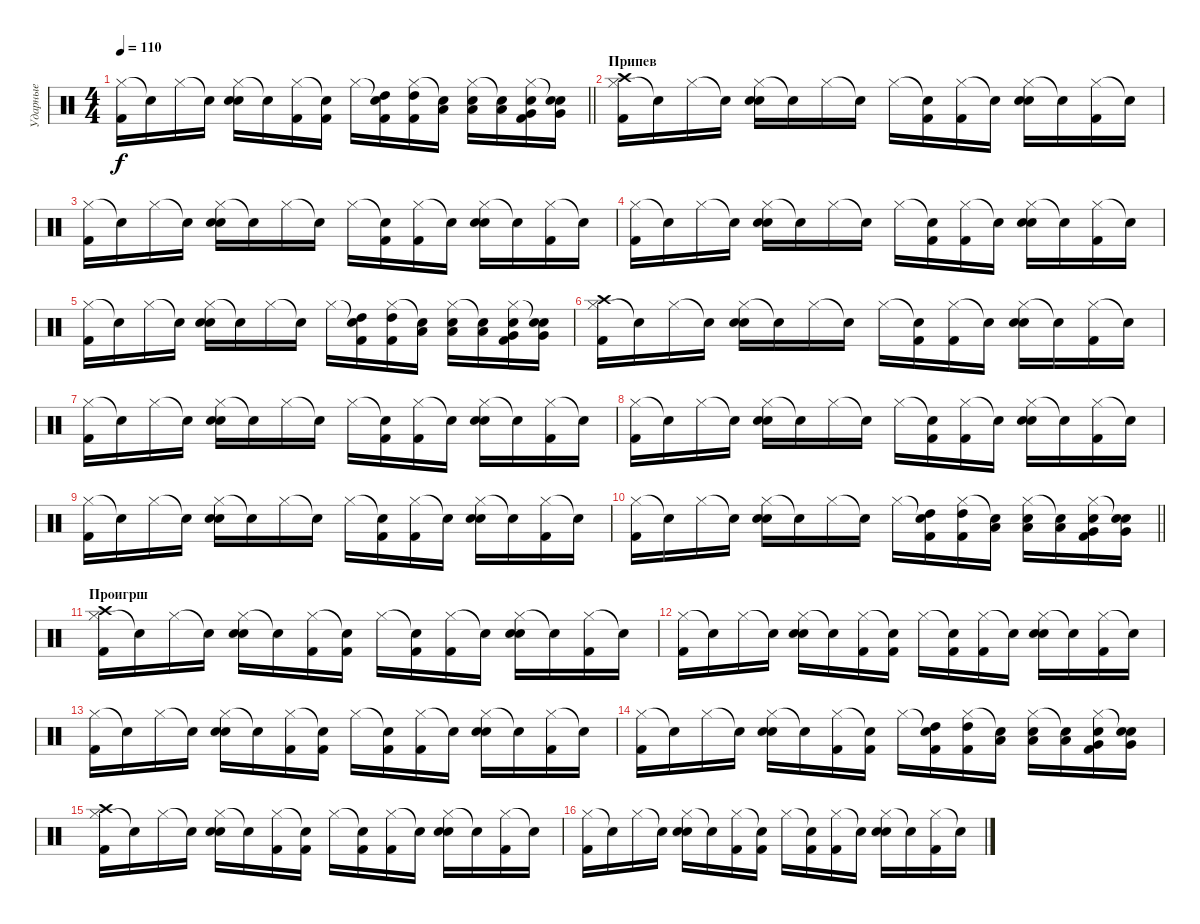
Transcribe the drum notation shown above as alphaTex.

\track ("Ударные" "Ударные") {instrument percussion}
\staff {score}
\articulation defaults
\ts (4 4)
\tempo 110
\clef neutral
\barLineRight lightlight
\ks c
("Hi-Hat (closed)" "Kick (hit) 2").16{dy f} "Snare (hit)"{t}.16 "Hi-Hat (closed)".16 "Snare (hit)"{t}.16 ("Hi-Hat (closed)" "Snare (hit) 2" "Electric Snare (hit)").16 "Snare (hit)"{t}.16 ("Hi-Hat (closed)" "Kick (hit) 2").16 ("Snare (hit)"{t} "Kick (hit) 2").16 "Hi-Hat (closed)".16 ("Snare (hit)"{t} "High Tom (hit)" "Kick (hit) 2").16 ("Hi-Hat (closed)" "High Tom (hit)" "Kick (hit) 2").16 ("Snare (hit)"{t} "Low Tom (hit)").16 ("Hi-Hat (closed)" "Low Tom (hit)" "Snare (hit) 2").16 ("Snare (hit)"{t} "Low Tom (hit)").16 ("Hi-Hat (closed)" "Very Low Tom (hit)" "Electric Snare (hit)" "Kick (hit) 2").16 ("Snare (hit)"{t} "Very Low Tom (hit)" "Electric Snare (hit)").16 |
\section ("" "Припев")
("Hi-Hat (closed)" "Crash high (hit)" "Kick (hit) 2").16 "Snare (hit)"{t}.16 "Hi-Hat (closed)".16 "Snare (hit)"{t}.16 ("Hi-Hat (closed)" "Snare (hit) 2" "Electric Snare (hit)").16 "Snare (hit)"{t}.16 "Hi-Hat (closed)".16 "Snare (hit)"{t}.16 "Hi-Hat (closed)".16 ("Snare (hit)"{t} "Kick (hit) 2").16 ("Hi-Hat (closed)" "Kick (hit) 2").16 "Snare (hit)"{t}.16 ("Hi-Hat (closed)" "Electric Snare (hit)" "Snare (hit) 2").16 "Snare (hit)"{t}.16 ("Hi-Hat (closed)" "Kick (hit) 2").16 "Snare (hit)"{t}.16 |
("Hi-Hat (closed)" "Kick (hit) 2").16 "Snare (hit)"{t}.16 "Hi-Hat (closed)".16 "Snare (hit)"{t}.16 ("Hi-Hat (closed)" "Snare (hit) 2" "Electric Snare (hit)").16 "Snare (hit)"{t}.16 "Hi-Hat (closed)".16 "Snare (hit)"{t}.16 "Hi-Hat (closed)".16 ("Snare (hit)"{t} "Kick (hit) 2").16 ("Hi-Hat (closed)" "Kick (hit) 2").16 "Snare (hit)"{t}.16 ("Hi-Hat (closed)" "Electric Snare (hit)" "Snare (hit) 2").16 "Snare (hit)"{t}.16 ("Hi-Hat (closed)" "Kick (hit) 2").16 "Snare (hit)"{t}.16 |
("Hi-Hat (closed)" "Kick (hit) 2").16 "Snare (hit)"{t}.16 "Hi-Hat (closed)".16 "Snare (hit)"{t}.16 ("Hi-Hat (closed)" "Snare (hit) 2" "Electric Snare (hit)").16 "Snare (hit)"{t}.16 "Hi-Hat (closed)".16 "Snare (hit)"{t}.16 "Hi-Hat (closed)".16 ("Snare (hit)"{t} "Kick (hit) 2").16 ("Hi-Hat (closed)" "Kick (hit) 2").16 "Snare (hit)"{t}.16 ("Hi-Hat (closed)" "Electric Snare (hit)" "Snare (hit) 2").16 "Snare (hit)"{t}.16 ("Hi-Hat (closed)" "Kick (hit) 2").16 "Snare (hit)"{t}.16 |
("Hi-Hat (closed)" "Kick (hit) 2").16 "Snare (hit)"{t}.16 "Hi-Hat (closed)".16 "Snare (hit)"{t}.16 ("Hi-Hat (closed)" "Snare (hit) 2" "Electric Snare (hit)").16 "Snare (hit)"{t}.16 "Hi-Hat (closed)".16 "Snare (hit)"{t}.16 "Hi-Hat (closed)".16 ("Snare (hit)"{t} "High Tom (hit)" "Kick (hit) 2").16 ("Hi-Hat (closed)" "High Tom (hit)" "Kick (hit) 2").16 ("Snare (hit)"{t} "Low Tom (hit)").16 ("Hi-Hat (closed)" "Low Tom (hit)" "Snare (hit) 2").16 ("Snare (hit)"{t} "Low Tom (hit)").16 ("Hi-Hat (closed)" "Very Low Tom (hit)" "Electric Snare (hit)" "Kick (hit) 2").16 ("Snare (hit)"{t} "Very Low Tom (hit)" "Electric Snare (hit)").16 |
("Hi-Hat (closed)" "Crash high (hit)" "Kick (hit) 2").16 "Snare (hit)"{t}.16 "Hi-Hat (closed)".16 "Snare (hit)"{t}.16 ("Hi-Hat (closed)" "Snare (hit) 2" "Electric Snare (hit)").16 "Snare (hit)"{t}.16 "Hi-Hat (closed)".16 "Snare (hit)"{t}.16 "Hi-Hat (closed)".16 ("Snare (hit)"{t} "Kick (hit) 2").16 ("Hi-Hat (closed)" "Kick (hit) 2").16 "Snare (hit)"{t}.16 ("Hi-Hat (closed)" "Electric Snare (hit)" "Snare (hit) 2").16 "Snare (hit)"{t}.16 ("Hi-Hat (closed)" "Kick (hit) 2").16 "Snare (hit)"{t}.16 |
("Hi-Hat (closed)" "Kick (hit) 2").16 "Snare (hit)"{t}.16 "Hi-Hat (closed)".16 "Snare (hit)"{t}.16 ("Hi-Hat (closed)" "Snare (hit) 2" "Electric Snare (hit)").16 "Snare (hit)"{t}.16 "Hi-Hat (closed)".16 "Snare (hit)"{t}.16 "Hi-Hat (closed)".16 ("Snare (hit)"{t} "Kick (hit) 2").16 ("Hi-Hat (closed)" "Kick (hit) 2").16 "Snare (hit)"{t}.16 ("Hi-Hat (closed)" "Electric Snare (hit)" "Snare (hit) 2").16 "Snare (hit)"{t}.16 ("Hi-Hat (closed)" "Kick (hit) 2").16 "Snare (hit)"{t}.16 |
("Hi-Hat (closed)" "Kick (hit) 2").16 "Snare (hit)"{t}.16 "Hi-Hat (closed)".16 "Snare (hit)"{t}.16 ("Hi-Hat (closed)" "Snare (hit) 2" "Electric Snare (hit)").16 "Snare (hit)"{t}.16 "Hi-Hat (closed)".16 "Snare (hit)"{t}.16 "Hi-Hat (closed)".16 ("Snare (hit)"{t} "Kick (hit) 2").16 ("Hi-Hat (closed)" "Kick (hit) 2").16 "Snare (hit)"{t}.16 ("Hi-Hat (closed)" "Electric Snare (hit)" "Snare (hit) 2").16 "Snare (hit)"{t}.16 ("Hi-Hat (closed)" "Kick (hit) 2").16 "Snare (hit)"{t}.16 |
("Hi-Hat (closed)" "Kick (hit) 2").16 "Snare (hit)"{t}.16 "Hi-Hat (closed)".16 "Snare (hit)"{t}.16 ("Hi-Hat (closed)" "Snare (hit) 2" "Electric Snare (hit)").16 "Snare (hit)"{t}.16 "Hi-Hat (closed)".16 "Snare (hit)"{t}.16 "Hi-Hat (closed)".16 ("Snare (hit)"{t} "Kick (hit) 2").16 ("Hi-Hat (closed)" "Kick (hit) 2").16 "Snare (hit)"{t}.16 ("Hi-Hat (closed)" "Electric Snare (hit)" "Snare (hit) 2").16 "Snare (hit)"{t}.16 ("Hi-Hat (closed)" "Kick (hit) 2").16 "Snare (hit)"{t}.16 |
\barLineRight lightlight
("Hi-Hat (closed)" "Kick (hit) 2").16 "Snare (hit)"{t}.16 "Hi-Hat (closed)".16 "Snare (hit)"{t}.16 ("Hi-Hat (closed)" "Snare (hit) 2" "Electric Snare (hit)").16 "Snare (hit)"{t}.16 "Hi-Hat (closed)".16 "Snare (hit)"{t}.16 "Hi-Hat (closed)".16 ("Snare (hit)"{t} "High Tom (hit)" "Kick (hit) 2").16 ("Hi-Hat (closed)" "High Tom (hit)" "Kick (hit) 2").16 ("Snare (hit)"{t} "Low Tom (hit)").16 ("Hi-Hat (closed)" "Low Tom (hit)" "Snare (hit) 2").16 ("Snare (hit)"{t} "Low Tom (hit)").16 ("Hi-Hat (closed)" "Very Low Tom (hit)" "Electric Snare (hit)" "Kick (hit) 2").16 ("Snare (hit)"{t} "Very Low Tom (hit)" "Electric Snare (hit)").16 |
\section ("" "Проигрш")
("Hi-Hat (closed)" "Crash high (hit)" "Kick (hit) 2").16 "Snare (hit)"{t}.16 "Hi-Hat (closed)".16 "Snare (hit)"{t}.16 ("Hi-Hat (closed)" "Snare (hit) 2" "Electric Snare (hit)").16 "Snare (hit)"{t}.16 ("Hi-Hat (closed)" "Kick (hit) 2").16 ("Snare (hit)"{t} "Kick (hit) 2").16 "Hi-Hat (closed)".16 ("Snare (hit)"{t} "Kick (hit) 2").16 ("Hi-Hat (closed)" "Kick (hit) 2").16 "Snare (hit)"{t}.16 ("Hi-Hat (closed)" "Electric Snare (hit)" "Snare (hit) 2").16 "Snare (hit)"{t}.16 ("Hi-Hat (closed)" "Kick (hit) 2").16 "Snare (hit)"{t}.16 |
("Hi-Hat (closed)" "Kick (hit) 2").16 "Snare (hit)"{t}.16 "Hi-Hat (closed)".16 "Snare (hit)"{t}.16 ("Hi-Hat (closed)" "Snare (hit) 2" "Electric Snare (hit)").16 "Snare (hit)"{t}.16 ("Hi-Hat (closed)" "Kick (hit) 2").16 ("Snare (hit)"{t} "Kick (hit) 2").16 "Hi-Hat (closed)".16 ("Snare (hit)"{t} "Kick (hit) 2").16 ("Hi-Hat (closed)" "Kick (hit) 2").16 "Snare (hit)"{t}.16 ("Hi-Hat (closed)" "Electric Snare (hit)" "Snare (hit) 2").16 "Snare (hit)"{t}.16 ("Hi-Hat (closed)" "Kick (hit) 2").16 "Snare (hit)"{t}.16 |
("Hi-Hat (closed)" "Kick (hit) 2").16 "Snare (hit)"{t}.16 "Hi-Hat (closed)".16 "Snare (hit)"{t}.16 ("Hi-Hat (closed)" "Snare (hit) 2" "Electric Snare (hit)").16 "Snare (hit)"{t}.16 ("Hi-Hat (closed)" "Kick (hit) 2").16 ("Snare (hit)"{t} "Kick (hit) 2").16 "Hi-Hat (closed)".16 ("Snare (hit)"{t} "Kick (hit) 2").16 ("Hi-Hat (closed)" "Kick (hit) 2").16 "Snare (hit)"{t}.16 ("Hi-Hat (closed)" "Electric Snare (hit)" "Snare (hit) 2").16 "Snare (hit)"{t}.16 ("Hi-Hat (closed)" "Kick (hit) 2").16 "Snare (hit)"{t}.16 |
("Hi-Hat (closed)" "Kick (hit) 2").16 "Snare (hit)"{t}.16 "Hi-Hat (closed)".16 "Snare (hit)"{t}.16 ("Hi-Hat (closed)" "Snare (hit) 2" "Electric Snare (hit)").16 "Snare (hit)"{t}.16 ("Hi-Hat (closed)" "Kick (hit) 2").16 ("Snare (hit)"{t} "Kick (hit) 2").16 "Hi-Hat (closed)".16 ("Snare (hit)"{t} "High Tom (hit)" "Kick (hit) 2").16 ("Hi-Hat (closed)" "High Tom (hit)" "Kick (hit) 2").16 ("Snare (hit)"{t} "Low Tom (hit)").16 ("Hi-Hat (closed)" "Low Tom (hit)" "Snare (hit) 2").16 ("Snare (hit)"{t} "Low Tom (hit)").16 ("Hi-Hat (closed)" "Very Low Tom (hit)" "Electric Snare (hit)" "Kick (hit) 2").16 ("Snare (hit)"{t} "Very Low Tom (hit)" "Electric Snare (hit)").16 |
("Hi-Hat (closed)" "Crash high (hit)" "Kick (hit) 2").16 "Snare (hit)"{t}.16 "Hi-Hat (closed)".16 "Snare (hit)"{t}.16 ("Hi-Hat (closed)" "Snare (hit) 2" "Electric Snare (hit)").16 "Snare (hit)"{t}.16 ("Hi-Hat (closed)" "Kick (hit) 2").16 ("Snare (hit)"{t} "Kick (hit) 2").16 "Hi-Hat (closed)".16 ("Snare (hit)"{t} "Kick (hit) 2").16 ("Hi-Hat (closed)" "Kick (hit) 2").16 "Snare (hit)"{t}.16 ("Hi-Hat (closed)" "Electric Snare (hit)" "Snare (hit) 2").16 "Snare (hit)"{t}.16 ("Hi-Hat (closed)" "Kick (hit) 2").16 "Snare (hit)"{t}.16 |
("Hi-Hat (closed)" "Kick (hit) 2").16 "Snare (hit)"{t}.16 "Hi-Hat (closed)".16 "Snare (hit)"{t}.16 ("Hi-Hat (closed)" "Snare (hit) 2" "Electric Snare (hit)").16 "Snare (hit)"{t}.16 ("Hi-Hat (closed)" "Kick (hit) 2").16 ("Snare (hit)"{t} "Kick (hit) 2").16 "Hi-Hat (closed)".16 ("Snare (hit)"{t} "Kick (hit) 2").16 ("Hi-Hat (closed)" "Kick (hit) 2").16 "Snare (hit)"{t}.16 ("Hi-Hat (closed)" "Electric Snare (hit)" "Snare (hit) 2").16 "Snare (hit)"{t}.16 ("Hi-Hat (closed)" "Kick (hit) 2").16 "Snare (hit)"{t}.16
